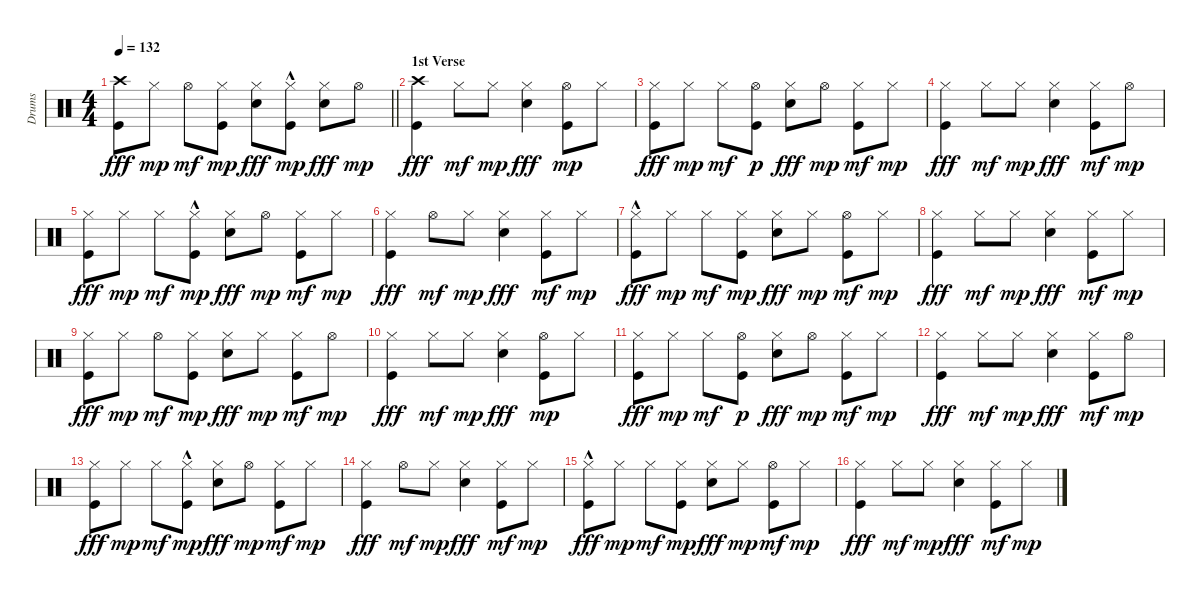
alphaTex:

\track ("Drums" "Drums") {instrument percussion}
\staff {score}
\articulation defaults
\ts (4 4)
\tempo 132
\clef neutral
\barLineRight lightlight
\ks c
("Crash high (hit)" "Kick (hit)").8{dy fff} "Hi-Hat (closed)".8{dy mp} "Hi-Hat (open)".8{dy mf} ("Hi-Hat (closed)" "Kick (hit)").8{dy mp} ("Hi-Hat (closed)" "Snare (hit) 2").8{dy fff} ("Hi-Hat (closed)" "Kick (hit)"{hac}).8{dy mp} ("Hi-Hat (closed)" "Snare (hit) 2").8{dy fff} "Hi-Hat (open)".8{dy mp} |
\section ("" "1st Verse")
("Crash high (hit)" "Kick (hit)").4{dy fff} "Hi-Hat (closed)".8{dy mf} "Hi-Hat (closed)".8{dy mp} ("Hi-Hat (closed)" "Snare (hit) 2").4{dy fff} ("Hi-Hat (open)" "Kick (hit)").8{dy mp} "Hi-Hat (closed)".8 |
("Hi-Hat (closed)" "Kick (hit)").8{dy fff} "Hi-Hat (closed)".8{dy mp} "Hi-Hat (closed)".8{dy mf} ("Hi-Hat (open)" "Kick (hit)").8{dy p} ("Hi-Hat (closed)" "Snare (hit) 2").8{dy fff} "Hi-Hat (open)".8{dy mp} ("Hi-Hat (closed)" "Kick (hit)").8{dy mf} "Hi-Hat (closed)".8{dy mp} |
("Hi-Hat (closed)" "Kick (hit)").4{dy fff} "Hi-Hat (closed)".8{dy mf} "Hi-Hat (closed)".8{dy mp} ("Hi-Hat (closed)" "Snare (hit) 2").4{dy fff} ("Hi-Hat (closed)" "Kick (hit)").8{dy mf} "Hi-Hat (open)".8{dy mp} |
("Hi-Hat (closed)" "Kick (hit)").8{dy fff} "Hi-Hat (closed)".8{dy mp} "Hi-Hat (closed)".8{dy mf} ("Hi-Hat (closed)" "Kick (hit)"{hac}).8{dy mp} ("Hi-Hat (closed)" "Snare (hit) 2").8{dy fff} "Hi-Hat (open)".8{dy mp} ("Hi-Hat (closed)" "Kick (hit)").8{dy mf} "Hi-Hat (closed)".8{dy mp} |
("Hi-Hat (closed)" "Kick (hit)").4{dy fff} "Hi-Hat (open)".8{dy mf} "Hi-Hat (closed)".8{dy mp} ("Hi-Hat (closed)" "Snare (hit) 2").4{dy fff} ("Hi-Hat (closed)" "Kick (hit)").8{dy mf} "Hi-Hat (closed)".8{dy mp} |
("Hi-Hat (closed)" "Kick (hit)"{hac}).8{dy fff} "Hi-Hat (closed)".8{dy mp} "Hi-Hat (closed)".8{dy mf} ("Hi-Hat (closed)" "Kick (hit)").8{dy mp} ("Hi-Hat (closed)" "Snare (hit) 2").8{dy fff} "Hi-Hat (closed)".8{dy mp} ("Hi-Hat (open)" "Kick (hit)").8{dy mf} "Hi-Hat (closed)".8{dy mp} |
("Hi-Hat (closed)" "Kick (hit)").4{dy fff} "Hi-Hat (closed)".8{dy mf} "Hi-Hat (closed)".8{dy mp} ("Hi-Hat (closed)" "Snare (hit) 2").4{dy fff} ("Hi-Hat (closed)" "Kick (hit)").8{dy mf} "Hi-Hat (closed)".8{dy mp} |
("Hi-Hat (closed)" "Kick (hit)").8{dy fff} "Hi-Hat (closed)".8{dy mp} "Hi-Hat (open)".8{dy mf} ("Hi-Hat (closed)" "Kick (hit)").8{dy mp} ("Hi-Hat (closed)" "Snare (hit) 2").8{dy fff} "Hi-Hat (closed)".8{dy mp} ("Hi-Hat (closed)" "Kick (hit)").8{dy mf} "Hi-Hat (open)".8{dy mp} |
("Hi-Hat (closed)" "Kick (hit)").4{dy fff} "Hi-Hat (closed)".8{dy mf} "Hi-Hat (closed)".8{dy mp} ("Hi-Hat (closed)" "Snare (hit) 2").4{dy fff} ("Hi-Hat (open)" "Kick (hit)").8{dy mp} "Hi-Hat (closed)".8 |
("Hi-Hat (closed)" "Kick (hit)").8{dy fff} "Hi-Hat (closed)".8{dy mp} "Hi-Hat (closed)".8{dy mf} ("Hi-Hat (open)" "Kick (hit)").8{dy p} ("Hi-Hat (closed)" "Snare (hit) 2").8{dy fff} "Hi-Hat (open)".8{dy mp} ("Hi-Hat (closed)" "Kick (hit)").8{dy mf} "Hi-Hat (closed)".8{dy mp} |
("Hi-Hat (closed)" "Kick (hit)").4{dy fff} "Hi-Hat (closed)".8{dy mf} "Hi-Hat (closed)".8{dy mp} ("Hi-Hat (closed)" "Snare (hit) 2").4{dy fff} ("Hi-Hat (closed)" "Kick (hit)").8{dy mf} "Hi-Hat (open)".8{dy mp} |
("Hi-Hat (closed)" "Kick (hit)").8{dy fff} "Hi-Hat (closed)".8{dy mp} "Hi-Hat (closed)".8{dy mf} ("Hi-Hat (closed)" "Kick (hit)"{hac}).8{dy mp} ("Hi-Hat (closed)" "Snare (hit) 2").8{dy fff} "Hi-Hat (open)".8{dy mp} ("Hi-Hat (closed)" "Kick (hit)").8{dy mf} "Hi-Hat (closed)".8{dy mp} |
("Hi-Hat (closed)" "Kick (hit)").4{dy fff} "Hi-Hat (open)".8{dy mf} "Hi-Hat (closed)".8{dy mp} ("Hi-Hat (closed)" "Snare (hit) 2").4{dy fff} ("Hi-Hat (closed)" "Kick (hit)").8{dy mf} "Hi-Hat (closed)".8{dy mp} |
("Hi-Hat (closed)" "Kick (hit)"{hac}).8{dy fff} "Hi-Hat (closed)".8{dy mp} "Hi-Hat (closed)".8{dy mf} ("Hi-Hat (closed)" "Kick (hit)").8{dy mp} ("Hi-Hat (closed)" "Snare (hit) 2").8{dy fff} "Hi-Hat (closed)".8{dy mp} ("Hi-Hat (open)" "Kick (hit)").8{dy mf} "Hi-Hat (closed)".8{dy mp} |
("Hi-Hat (closed)" "Kick (hit)").4{dy fff} "Hi-Hat (closed)".8{dy mf} "Hi-Hat (closed)".8{dy mp} ("Hi-Hat (closed)" "Snare (hit) 2").4{dy fff} ("Hi-Hat (closed)" "Kick (hit)").8{dy mf} "Hi-Hat (closed)".8{dy mp}
